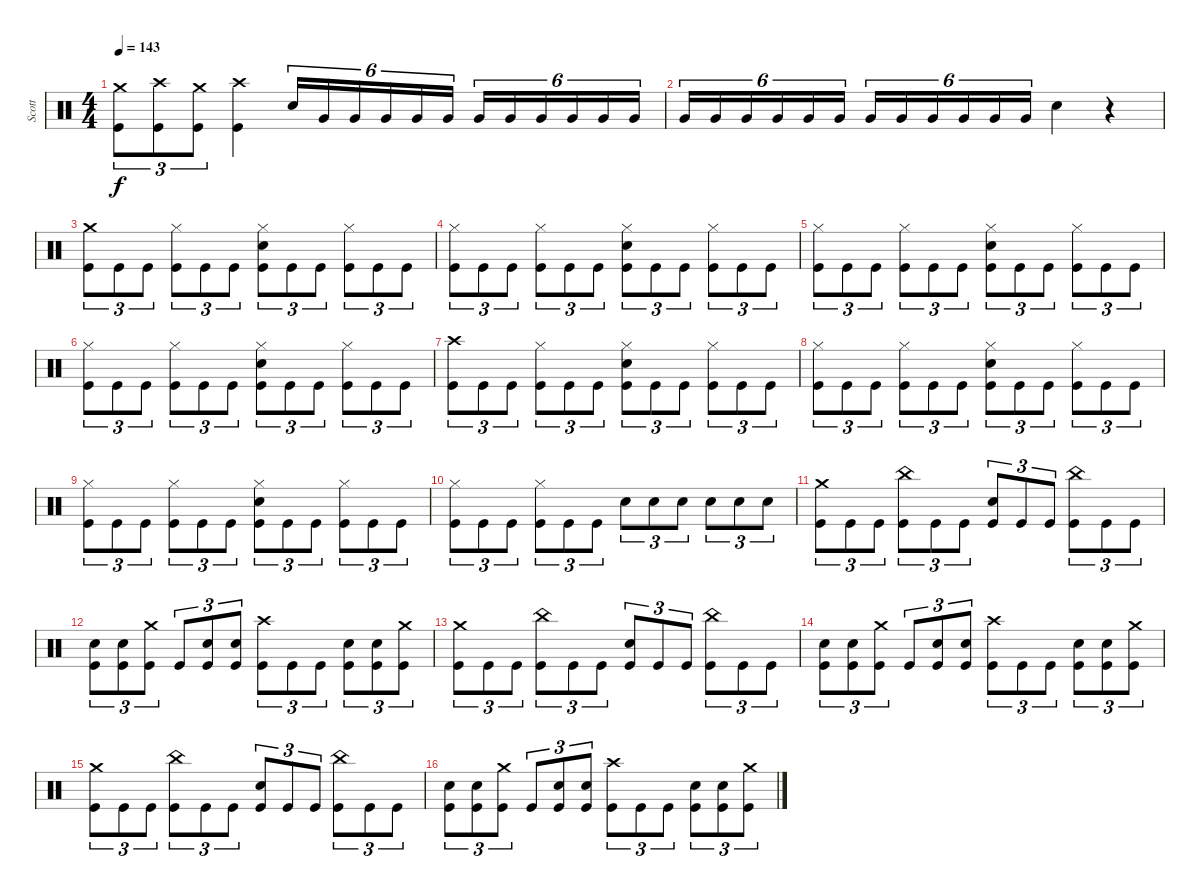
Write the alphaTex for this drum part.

\track ("Scott" "Scott") {instrument percussion}
\staff {score}
\articulation defaults
\ts (4 4)
\tempo 143
\clef neutral
\ks c
("Kick (hit)" "Crash medium (hit)").8{tu (3 2) dy f} ("Kick (hit)" "Crash high (hit)").8{tu (3 2)} ("Kick (hit)" "Crash medium (hit)").8{tu (3 2)} ("Kick (hit)" "Crash high (hit)").4 "Snare (hit) 2".16{tu (6 4)} "Very Low Tom (hit)".16{tu (6 4)} "Very Low Tom (hit)".16{tu (6 4)} "Very Low Tom (hit)".16{tu (6 4)} "Very Low Tom (hit)".16{tu (6 4)} "Very Low Tom (hit)".16{tu (6 4)} "Very Low Tom (hit)".16{tu (6 4)} "Very Low Tom (hit)".16{tu (6 4)} "Very Low Tom (hit)".16{tu (6 4)} "Very Low Tom (hit)".16{tu (6 4)} "Very Low Tom (hit)".16{tu (6 4)} "Very Low Tom (hit)".16{tu (6 4)} |
"Very Low Tom (hit)".16{tu (6 4)} "Very Low Tom (hit)".16{tu (6 4)} "Very Low Tom (hit)".16{tu (6 4)} "Very Low Tom (hit)".16{tu (6 4)} "Very Low Tom (hit)".16{tu (6 4)} "Very Low Tom (hit)".16{tu (6 4)} "Very Low Tom (hit)".16{tu (6 4)} "Very Low Tom (hit)".16{tu (6 4)} "Very Low Tom (hit)".16{tu (6 4)} "Very Low Tom (hit)".16{tu (6 4)} "Very Low Tom (hit)".16{tu (6 4)} "Very Low Tom (hit)".16{tu (6 4)} "Snare (hit) 2".4 r.4 |
("Kick (hit)" "Crash medium (hit)").8{tu (3 2)} "Kick (hit)".8{tu (3 2)} "Kick (hit)".8{tu (3 2)} ("Kick (hit)" "Hi-Hat (closed)").8{tu (3 2)} "Kick (hit)".8{tu (3 2)} "Kick (hit)".8{tu (3 2)} ("Kick (hit)" "Snare (hit) 2" "Hi-Hat (closed)").8{tu (3 2)} "Kick (hit)".8{tu (3 2)} "Kick (hit)".8{tu (3 2)} ("Kick (hit)" "Hi-Hat (closed)").8{tu (3 2)} "Kick (hit)".8{tu (3 2)} "Kick (hit)".8{tu (3 2)} |
("Kick (hit)" "Hi-Hat (closed)").8{tu (3 2)} "Kick (hit)".8{tu (3 2)} "Kick (hit)".8{tu (3 2)} ("Kick (hit)" "Hi-Hat (closed)").8{tu (3 2)} "Kick (hit)".8{tu (3 2)} "Kick (hit)".8{tu (3 2)} ("Kick (hit)" "Snare (hit) 2" "Hi-Hat (closed)").8{tu (3 2)} "Kick (hit)".8{tu (3 2)} "Kick (hit)".8{tu (3 2)} ("Kick (hit)" "Hi-Hat (closed)").8{tu (3 2)} "Kick (hit)".8{tu (3 2)} "Kick (hit)".8{tu (3 2)} |
("Kick (hit)" "Hi-Hat (closed)").8{tu (3 2)} "Kick (hit)".8{tu (3 2)} "Kick (hit)".8{tu (3 2)} ("Kick (hit)" "Hi-Hat (closed)").8{tu (3 2)} "Kick (hit)".8{tu (3 2)} "Kick (hit)".8{tu (3 2)} ("Kick (hit)" "Snare (hit) 2" "Hi-Hat (closed)").8{tu (3 2)} "Kick (hit)".8{tu (3 2)} "Kick (hit)".8{tu (3 2)} ("Kick (hit)" "Hi-Hat (closed)").8{tu (3 2)} "Kick (hit)".8{tu (3 2)} "Kick (hit)".8{tu (3 2)} |
("Kick (hit)" "Hi-Hat (closed)").8{tu (3 2)} "Kick (hit)".8{tu (3 2)} "Kick (hit)".8{tu (3 2)} ("Kick (hit)" "Hi-Hat (closed)").8{tu (3 2)} "Kick (hit)".8{tu (3 2)} "Kick (hit)".8{tu (3 2)} ("Kick (hit)" "Snare (hit) 2" "Hi-Hat (closed)").8{tu (3 2)} "Kick (hit)".8{tu (3 2)} "Kick (hit)".8{tu (3 2)} ("Kick (hit)" "Hi-Hat (closed)").8{tu (3 2)} "Kick (hit)".8{tu (3 2)} "Kick (hit)".8{tu (3 2)} |
("Kick (hit)" "Crash high (hit)").8{tu (3 2)} "Kick (hit)".8{tu (3 2)} "Kick (hit)".8{tu (3 2)} ("Kick (hit)" "Hi-Hat (closed)").8{tu (3 2)} "Kick (hit)".8{tu (3 2)} "Kick (hit)".8{tu (3 2)} ("Kick (hit)" "Snare (hit) 2" "Hi-Hat (closed)").8{tu (3 2)} "Kick (hit)".8{tu (3 2)} "Kick (hit)".8{tu (3 2)} ("Kick (hit)" "Hi-Hat (closed)").8{tu (3 2)} "Kick (hit)".8{tu (3 2)} "Kick (hit)".8{tu (3 2)} |
("Kick (hit)" "Hi-Hat (closed)").8{tu (3 2)} "Kick (hit)".8{tu (3 2)} "Kick (hit)".8{tu (3 2)} ("Kick (hit)" "Hi-Hat (closed)").8{tu (3 2)} "Kick (hit)".8{tu (3 2)} "Kick (hit)".8{tu (3 2)} ("Kick (hit)" "Snare (hit) 2" "Hi-Hat (closed)").8{tu (3 2)} "Kick (hit)".8{tu (3 2)} "Kick (hit)".8{tu (3 2)} ("Kick (hit)" "Hi-Hat (closed)").8{tu (3 2)} "Kick (hit)".8{tu (3 2)} "Kick (hit)".8{tu (3 2)} |
("Kick (hit)" "Hi-Hat (closed)").8{tu (3 2)} "Kick (hit)".8{tu (3 2)} "Kick (hit)".8{tu (3 2)} ("Kick (hit)" "Hi-Hat (closed)").8{tu (3 2)} "Kick (hit)".8{tu (3 2)} "Kick (hit)".8{tu (3 2)} ("Kick (hit)" "Snare (hit) 2" "Hi-Hat (closed)").8{tu (3 2)} "Kick (hit)".8{tu (3 2)} "Kick (hit)".8{tu (3 2)} ("Kick (hit)" "Hi-Hat (closed)").8{tu (3 2)} "Kick (hit)".8{tu (3 2)} "Kick (hit)".8{tu (3 2)} |
("Kick (hit)" "Hi-Hat (closed)").8{tu (3 2)} "Kick (hit)".8{tu (3 2)} "Kick (hit)".8{tu (3 2)} ("Kick (hit)" "Hi-Hat (closed)").8{tu (3 2)} "Kick (hit)".8{tu (3 2)} "Kick (hit)".8{tu (3 2)} "Snare (hit) 2".8{tu (3 2)} "Snare (hit) 2".8{tu (3 2)} "Snare (hit) 2".8{tu (3 2)} "Snare (hit) 2".8{tu (3 2)} "Snare (hit) 2".8{tu (3 2)} "Snare (hit) 2".8{tu (3 2)} |
("Kick (hit)" "Crash medium (hit)").8{tu (3 2)} "Kick (hit)".8{tu (3 2)} "Kick (hit)".8{tu (3 2)} ("Kick (hit)" "China (hit)").8{tu (3 2)} "Kick (hit)".8{tu (3 2)} "Kick (hit)".8{tu (3 2)} ("Kick (hit)" "Snare (hit) 2").8{tu (3 2)} "Kick (hit)".8{tu (3 2)} "Kick (hit)".8{tu (3 2)} ("Kick (hit)" "China (hit)").8{tu (3 2)} "Kick (hit)".8{tu (3 2)} "Kick (hit)".8{tu (3 2)} |
("Kick (hit)" "Snare (hit) 2").8{tu (3 2)} ("Kick (hit)" "Snare (hit) 2").8{tu (3 2)} ("Kick (hit)" "Crash medium (hit)").8{tu (3 2)} "Kick (hit)".8{tu (3 2)} ("Kick (hit)" "Snare (hit) 2").8{tu (3 2)} ("Kick (hit)" "Snare (hit) 2").8{tu (3 2)} ("Kick (hit)" "Crash high (hit)").8{tu (3 2)} "Kick (hit)".8{tu (3 2)} "Kick (hit)".8{tu (3 2)} ("Kick (hit)" "Snare (hit) 2").8{tu (3 2)} ("Kick (hit)" "Snare (hit) 2").8{tu (3 2)} ("Kick (hit)" "Crash medium (hit)").8{tu (3 2)} |
("Kick (hit)" "Crash medium (hit)").8{tu (3 2)} "Kick (hit)".8{tu (3 2)} "Kick (hit)".8{tu (3 2)} ("Kick (hit)" "China (hit)").8{tu (3 2)} "Kick (hit)".8{tu (3 2)} "Kick (hit)".8{tu (3 2)} ("Kick (hit)" "Snare (hit) 2").8{tu (3 2)} "Kick (hit)".8{tu (3 2)} "Kick (hit)".8{tu (3 2)} ("Kick (hit)" "China (hit)").8{tu (3 2)} "Kick (hit)".8{tu (3 2)} "Kick (hit)".8{tu (3 2)} |
("Kick (hit)" "Snare (hit) 2").8{tu (3 2)} ("Kick (hit)" "Snare (hit) 2").8{tu (3 2)} ("Kick (hit)" "Crash medium (hit)").8{tu (3 2)} "Kick (hit)".8{tu (3 2)} ("Kick (hit)" "Snare (hit) 2").8{tu (3 2)} ("Kick (hit)" "Snare (hit) 2").8{tu (3 2)} ("Kick (hit)" "Crash high (hit)").8{tu (3 2)} "Kick (hit)".8{tu (3 2)} "Kick (hit)".8{tu (3 2)} ("Kick (hit)" "Snare (hit) 2").8{tu (3 2)} ("Kick (hit)" "Snare (hit) 2").8{tu (3 2)} ("Kick (hit)" "Crash medium (hit)").8{tu (3 2)} |
("Kick (hit)" "Crash medium (hit)").8{tu (3 2)} "Kick (hit)".8{tu (3 2)} "Kick (hit)".8{tu (3 2)} ("Kick (hit)" "China (hit)").8{tu (3 2)} "Kick (hit)".8{tu (3 2)} "Kick (hit)".8{tu (3 2)} ("Kick (hit)" "Snare (hit) 2").8{tu (3 2)} "Kick (hit)".8{tu (3 2)} "Kick (hit)".8{tu (3 2)} ("Kick (hit)" "China (hit)").8{tu (3 2)} "Kick (hit)".8{tu (3 2)} "Kick (hit)".8{tu (3 2)} |
("Kick (hit)" "Snare (hit) 2").8{tu (3 2)} ("Kick (hit)" "Snare (hit) 2").8{tu (3 2)} ("Kick (hit)" "Crash medium (hit)").8{tu (3 2)} "Kick (hit)".8{tu (3 2)} ("Kick (hit)" "Snare (hit) 2").8{tu (3 2)} ("Kick (hit)" "Snare (hit) 2").8{tu (3 2)} ("Kick (hit)" "Crash high (hit)").8{tu (3 2)} "Kick (hit)".8{tu (3 2)} "Kick (hit)".8{tu (3 2)} ("Kick (hit)" "Snare (hit) 2").8{tu (3 2)} ("Kick (hit)" "Snare (hit) 2").8{tu (3 2)} ("Kick (hit)" "Crash medium (hit)").8{tu (3 2)}
